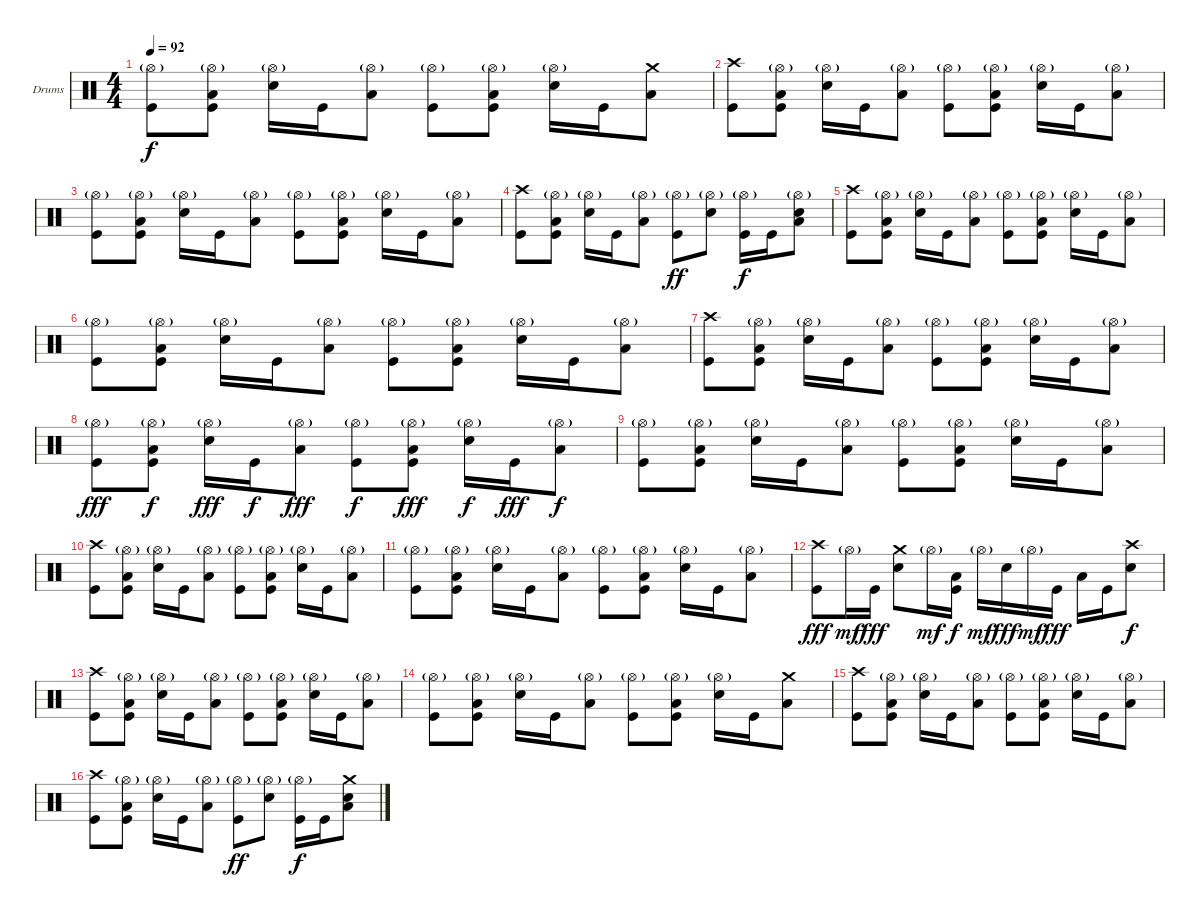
\defaultSystemsLayout 4
\bracketExtendMode groupsimilarinstruments
\firstSystemTrackNameOrientation horizontal
\otherSystemsTrackNameOrientation horizontal
\track ("Drumkit" "Drums") {instrument percussion}
\staff {score}
\articulation defaults
\ts (4 4)
\tempo 92
\clef neutral
\scale
0.333333
\ks c
("Hi-Hat (open)"{g} "Kick (hit)").8{dy f} ("Hi-Hat (open)"{g} "Low Tom (hit)" "Kick (hit)").8 ("Hi-Hat (open)"{g} "Snare (hit) 2").16 "Kick (hit)".16 ("Hi-Hat (open)"{g} "Low Tom (hit)").8 ("Hi-Hat (open)"{g} "Kick (hit)").8 ("Hi-Hat (open)"{g} "Low Tom (hit)" "Kick (hit)").8 ("Hi-Hat (open)"{g} "Snare (hit) 2").16 "Kick (hit)".16 ("Low Tom (hit)" "Crash medium (hit)").8 |
\scale
0.333333 ("Kick (hit)" "Crash high (hit)").8 ("Hi-Hat (open)"{g} "Low Tom (hit)" "Kick (hit)").8 ("Hi-Hat (open)"{g} "Snare (hit) 2").16 "Kick (hit)".16 ("Hi-Hat (open)"{g} "Low Tom (hit)").8 ("Hi-Hat (open)"{g} "Kick (hit)").8 ("Hi-Hat (open)"{g} "Low Tom (hit)" "Kick (hit)").8 ("Hi-Hat (open)"{g} "Snare (hit) 2").16 "Kick (hit)".16 ("Hi-Hat (open)"{g} "Low Tom (hit)").8 |
\scale
0.333333 ("Hi-Hat (open)"{g} "Kick (hit)").8 ("Hi-Hat (open)"{g} "Low Tom (hit)" "Kick (hit)").8 ("Hi-Hat (open)"{g} "Snare (hit) 2").16 "Kick (hit)".16 ("Hi-Hat (open)"{g} "Low Tom (hit)").8 ("Hi-Hat (open)"{g} "Kick (hit)").8 ("Hi-Hat (open)"{g} "Low Tom (hit)" "Kick (hit)").8 ("Hi-Hat (open)"{g} "Snare (hit) 2").16 "Kick (hit)".16 ("Hi-Hat (open)"{g} "Low Tom (hit)").8 |
\scale
0.333333 ("Kick (hit)" "Crash high (hit)").8 ("Hi-Hat (open)"{g} "Low Tom (hit)" "Kick (hit)").8 ("Hi-Hat (open)"{g} "Snare (hit) 2").16 "Kick (hit)".16 ("Hi-Hat (open)"{g} "Low Tom (hit)").8 ("Hi-Hat (open)"{g} "Kick (hit)").8{dy ff} ("Hi-Hat (open)"{g} "Snare (hit) 2").8 ("Hi-Hat (open)"{g} "Kick (hit)").16{dy f} "Kick (hit)".16 ("Hi-Hat (open)"{g} "Low Tom (hit)" "Snare (hit) 2").8 |
\scale
0.333333 ("Kick (hit)" "Crash high (hit)").8 ("Hi-Hat (open)"{g} "Low Tom (hit)" "Kick (hit)").8 ("Hi-Hat (open)"{g} "Snare (hit) 2").16 "Kick (hit)".16 ("Hi-Hat (open)"{g} "Low Tom (hit)").8 ("Hi-Hat (open)"{g} "Kick (hit)").8 ("Hi-Hat (open)"{g} "Low Tom (hit)" "Kick (hit)").8 ("Hi-Hat (open)"{g} "Snare (hit) 2").16 "Kick (hit)".16 ("Hi-Hat (open)"{g} "Low Tom (hit)").8 |
\scale
0.333333 ("Hi-Hat (open)"{g} "Kick (hit)").8 ("Hi-Hat (open)"{g} "Low Tom (hit)" "Kick (hit)").8 ("Hi-Hat (open)"{g} "Snare (hit) 2").16 "Kick (hit)".16 ("Hi-Hat (open)"{g} "Low Tom (hit)").8 ("Hi-Hat (open)"{g} "Kick (hit)").8 ("Hi-Hat (open)"{g} "Low Tom (hit)" "Kick (hit)").8 ("Hi-Hat (open)"{g} "Snare (hit) 2").16 "Kick (hit)".16 ("Hi-Hat (open)"{g} "Low Tom (hit)").8 |
\scale
0.333333 ("Kick (hit)" "Crash high (hit)").8 ("Hi-Hat (open)"{g} "Low Tom (hit)" "Kick (hit)").8 ("Hi-Hat (open)"{g} "Snare (hit) 2").16 "Kick (hit)".16 ("Hi-Hat (open)"{g} "Low Tom (hit)").8 ("Hi-Hat (open)"{g} "Kick (hit)").8 ("Hi-Hat (open)"{g} "Low Tom (hit)" "Kick (hit)").8 ("Hi-Hat (open)"{g} "Snare (hit) 2").16 "Kick (hit)".16 ("Hi-Hat (open)"{g} "Low Tom (hit)").8 |
\scale
0.333333 ("Hi-Hat (open)"{g} "Kick (hit)").8{dy fff} ("Hi-Hat (open)"{g} "Low Tom (hit)" "Kick (hit)").8{dy f} ("Hi-Hat (open)"{g} "Snare (hit) 2").16{dy fff} "Kick (hit)".16{dy f} ("Hi-Hat (open)"{g} "Low Tom (hit)").8{dy fff} ("Hi-Hat (open)"{g} "Kick (hit)").8{dy f} ("Hi-Hat (open)"{g} "Low Tom (hit)" "Kick (hit)").8{dy fff} ("Hi-Hat (open)"{g} "Snare (hit) 2").16{dy f} "Kick (hit)".16{dy fff} ("Hi-Hat (open)"{g} "Low Tom (hit)").8{dy f} |
\scale
0.333333 ("Hi-Hat (open)"{g} "Kick (hit)").8 ("Hi-Hat (open)"{g} "Low Tom (hit)" "Kick (hit)").8 ("Hi-Hat (open)"{g} "Snare (hit) 2").16 "Kick (hit)".16 ("Hi-Hat (open)"{g} "Low Tom (hit)").8 ("Hi-Hat (open)"{g} "Kick (hit)").8 ("Hi-Hat (open)"{g} "Low Tom (hit)" "Kick (hit)").8 ("Hi-Hat (open)"{g} "Snare (hit) 2").16 "Kick (hit)".16 ("Hi-Hat (open)"{g} "Low Tom (hit)").8 |
\scale
0.333333 ("Kick (hit)" "Crash high (hit)").8 ("Hi-Hat (open)"{g} "Low Tom (hit)" "Kick (hit)").8 ("Hi-Hat (open)"{g} "Snare (hit) 2").16 "Kick (hit)".16 ("Hi-Hat (open)"{g} "Low Tom (hit)").8 ("Hi-Hat (open)"{g} "Kick (hit)").8 ("Hi-Hat (open)"{g} "Low Tom (hit)" "Kick (hit)").8 ("Hi-Hat (open)"{g} "Snare (hit) 2").16 "Kick (hit)".16 ("Hi-Hat (open)"{g} "Low Tom (hit)").8 |
\scale
0.333333 ("Hi-Hat (open)"{g} "Kick (hit)").8 ("Hi-Hat (open)"{g} "Low Tom (hit)" "Kick (hit)").8 ("Hi-Hat (open)"{g} "Snare (hit) 2").16 "Kick (hit)".16 ("Hi-Hat (open)"{g} "Low Tom (hit)").8 ("Hi-Hat (open)"{g} "Kick (hit)").8 ("Hi-Hat (open)"{g} "Low Tom (hit)" "Kick (hit)").8 ("Hi-Hat (open)"{g} "Snare (hit) 2").16 "Kick (hit)".16 ("Hi-Hat (open)"{g} "Low Tom (hit)").8 |
\scale
0.333333 ("Crash high (hit)" "Kick (hit)").8{dy fff} "Hi-Hat (open)"{g}.16{dy mf} "Kick (hit)".16{dy fff} ("Snare (hit) 2" "Crash medium (hit)").8 "Hi-Hat (open)"{g}.16{dy mf} ("Low Tom (hit)" "Kick (hit)").16{dy f} "Hi-Hat (open)"{g}.16{dy mf} "Snare (hit) 2".16{dy fff} "Hi-Hat (open)"{g}.16{dy mf} "Kick (hit)".16{dy fff} "Low Tom (hit)".16 "Kick (hit)".16 ("Crash high (hit)" "Snare (hit) 2").8{dy f} |
\scale
0.333333 ("Kick (hit)" "Crash high (hit)").8 ("Hi-Hat (open)"{g} "Low Tom (hit)" "Kick (hit)").8 ("Hi-Hat (open)"{g} "Snare (hit) 2").16 "Kick (hit)".16 ("Hi-Hat (open)"{g} "Low Tom (hit)").8 ("Hi-Hat (open)"{g} "Kick (hit)").8 ("Hi-Hat (open)"{g} "Low Tom (hit)" "Kick (hit)").8 ("Hi-Hat (open)"{g} "Snare (hit) 2").16 "Kick (hit)".16 ("Hi-Hat (open)"{g} "Low Tom (hit)").8 |
\scale
0.333333 ("Hi-Hat (open)"{g} "Kick (hit)").8 ("Hi-Hat (open)"{g} "Low Tom (hit)" "Kick (hit)").8 ("Hi-Hat (open)"{g} "Snare (hit) 2").16 "Kick (hit)".16 ("Hi-Hat (open)"{g} "Low Tom (hit)").8 ("Hi-Hat (open)"{g} "Kick (hit)").8 ("Hi-Hat (open)"{g} "Low Tom (hit)" "Kick (hit)").8 ("Hi-Hat (open)"{g} "Snare (hit) 2").16 "Kick (hit)".16 ("Low Tom (hit)" "Crash medium (hit)").8 |
\scale
0.333333 ("Kick (hit)" "Crash high (hit)").8 ("Hi-Hat (open)"{g} "Low Tom (hit)" "Kick (hit)").8 ("Hi-Hat (open)"{g} "Snare (hit) 2").16 "Kick (hit)".16 ("Hi-Hat (open)"{g} "Low Tom (hit)").8 ("Hi-Hat (open)"{g} "Kick (hit)").8 ("Hi-Hat (open)"{g} "Low Tom (hit)" "Kick (hit)").8 ("Hi-Hat (open)"{g} "Snare (hit) 2").16 "Kick (hit)".16 ("Hi-Hat (open)"{g} "Low Tom (hit)").8 |
\scale
0.333333 ("Kick (hit)" "Crash high (hit)").8 ("Hi-Hat (open)"{g} "Low Tom (hit)" "Kick (hit)").8 ("Hi-Hat (open)"{g} "Snare (hit) 2").16 "Kick (hit)".16 ("Hi-Hat (open)"{g} "Low Tom (hit)").8 ("Hi-Hat (open)"{g} "Kick (hit)").8{dy ff} ("Hi-Hat (open)"{g} "Snare (hit) 2").8 ("Hi-Hat (open)"{g} "Kick (hit)").16{dy f} "Kick (hit)".16 ("Low Tom (hit)" "Snare (hit) 2" "Crash medium (hit)").8
